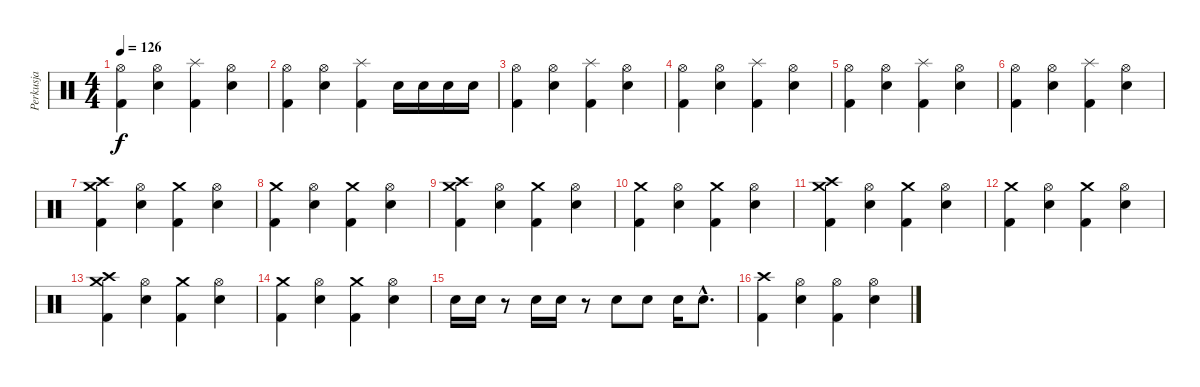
\track ("Perkusja" "Perkusja") {instrument percussion}
\staff {score}
\articulation defaults
\ts (4 4)
\tempo 126
\clef neutral
\ks c
("Hi-Hat (open)" "Kick (hit) 2").4{dy f} ("Hi-Hat (open)" "Electric Snare (hit)").4 ("Splash (hit)" "Kick (hit) 2").4 ("Hi-Hat (open)" "Electric Snare (hit)").4 |
("Hi-Hat (open)" "Kick (hit) 2").4 ("Hi-Hat (open)" "Electric Snare (hit)").4 ("Splash (hit)" "Kick (hit) 2").4 "Electric Snare (hit)".16 "Electric Snare (hit)".16 "Electric Snare (hit)".16 "Electric Snare (hit)".16 |
("Hi-Hat (open)" "Kick (hit) 2").4 ("Hi-Hat (open)" "Electric Snare (hit)").4 ("Splash (hit)" "Kick (hit) 2").4 ("Hi-Hat (open)" "Electric Snare (hit)").4 |
("Hi-Hat (open)" "Kick (hit) 2").4 ("Hi-Hat (open)" "Electric Snare (hit)").4 ("Splash (hit)" "Kick (hit) 2").4 ("Hi-Hat (open)" "Electric Snare (hit)").4 |
("Hi-Hat (open)" "Kick (hit) 2").4 ("Hi-Hat (open)" "Electric Snare (hit)").4 ("Splash (hit)" "Kick (hit) 2").4 ("Hi-Hat (open)" "Electric Snare (hit)").4 |
("Hi-Hat (open)" "Kick (hit) 2").4 ("Hi-Hat (open)" "Electric Snare (hit)").4 ("Splash (hit)" "Kick (hit) 2").4 ("Hi-Hat (open)" "Electric Snare (hit)").4 |
("Crash medium (hit)" "Crash high (hit)" "Kick (hit) 2").4 ("Hi-Hat (open)" "Electric Snare (hit)").4 ("Crash medium (hit)" "Kick (hit) 2").4 ("Hi-Hat (open)" "Electric Snare (hit)").4 |
("Crash medium (hit)" "Kick (hit) 2").4 ("Hi-Hat (open)" "Electric Snare (hit)").4 ("Crash medium (hit)" "Kick (hit) 2").4 ("Hi-Hat (open)" "Electric Snare (hit)").4 |
("Crash medium (hit)" "Crash high (hit)" "Kick (hit) 2").4 ("Hi-Hat (open)" "Electric Snare (hit)").4 ("Crash medium (hit)" "Kick (hit) 2").4 ("Hi-Hat (open)" "Electric Snare (hit)").4 |
("Crash medium (hit)" "Kick (hit) 2").4 ("Hi-Hat (open)" "Electric Snare (hit)").4 ("Crash medium (hit)" "Kick (hit) 2").4 ("Hi-Hat (open)" "Electric Snare (hit)").4 |
("Crash medium (hit)" "Crash high (hit)" "Kick (hit) 2").4 ("Hi-Hat (open)" "Electric Snare (hit)").4 ("Crash medium (hit)" "Kick (hit) 2").4 ("Hi-Hat (open)" "Electric Snare (hit)").4 |
("Crash medium (hit)" "Kick (hit) 2").4 ("Hi-Hat (open)" "Electric Snare (hit)").4 ("Crash medium (hit)" "Kick (hit) 2").4 ("Hi-Hat (open)" "Electric Snare (hit)").4 |
("Crash medium (hit)" "Crash high (hit)" "Kick (hit) 2").4 ("Hi-Hat (open)" "Electric Snare (hit)").4 ("Crash medium (hit)" "Kick (hit) 2").4 ("Hi-Hat (open)" "Electric Snare (hit)").4 |
("Crash medium (hit)" "Kick (hit) 2").4 ("Hi-Hat (open)" "Electric Snare (hit)").4 ("Crash medium (hit)" "Kick (hit) 2").4 ("Hi-Hat (open)" "Electric Snare (hit)").4 |
"Electric Snare (hit)".16 "Electric Snare (hit)".16 r.8 "Electric Snare (hit)".16 "Electric Snare (hit)".16 r.8 "Electric Snare (hit)".8 "Electric Snare (hit)".8 "Electric Snare (hit)".16 "Electric Snare (hit)"{hac}.8{d} |
("Crash high (hit)" "Kick (hit) 2").4 ("Hi-Hat (open)" "Electric Snare (hit)").4 ("Hi-Hat (open)" "Kick (hit) 2").4 ("Hi-Hat (open)" "Electric Snare (hit)").4
